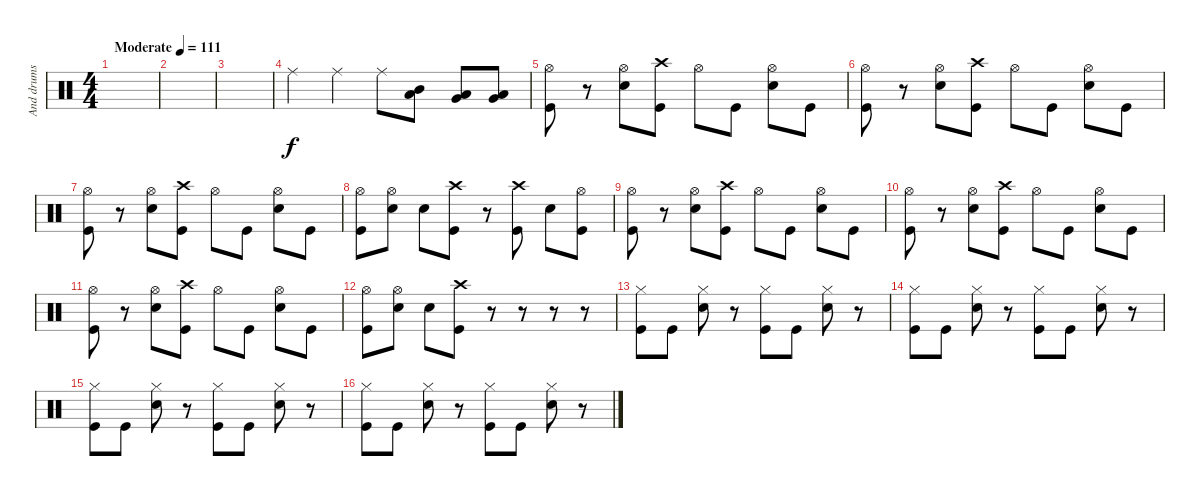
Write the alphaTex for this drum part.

\track ("And drums" "And drums") {instrument percussion}
\staff {score}
\articulation defaults
\ts (4 4)
\tempo (111 "Moderate")
\clef neutral
\ks c
|
|
|
"Ride (middle)".4 "Ride (middle)".4 "Ride (middle)".8 ("Mid Tom (hit)" "Low Tom (hit)").8 ("Low Tom (hit)" "Very Low Tom (hit)").8 ("Very Low Tom (hit)" "Low Floor Tom (hit)").8 |
("Hi-Hat (open)" "Kick (hit)").8 r.8 ("Hi-Hat (open)" "Snare (hit) 2").8 ("Crash high (hit)" "Kick (hit)").8 "Hi-Hat (open)".8 "Kick (hit)".8 ("Hi-Hat (open)" "Snare (hit) 2").8 "Kick (hit)".8 |
("Hi-Hat (open)" "Kick (hit)").8 r.8 ("Hi-Hat (open)" "Snare (hit) 2").8 ("Crash high (hit)" "Kick (hit)").8 "Hi-Hat (open)".8 "Kick (hit)".8 ("Hi-Hat (open)" "Snare (hit) 2").8 "Kick (hit)".8 |
("Hi-Hat (open)" "Kick (hit)").8 r.8 ("Hi-Hat (open)" "Snare (hit) 2").8 ("Crash high (hit)" "Kick (hit)").8 "Hi-Hat (open)".8 "Kick (hit)".8 ("Hi-Hat (open)" "Snare (hit) 2").8 "Kick (hit)".8 |
("Hi-Hat (open)" "Kick (hit)").8 ("Hi-Hat (open)" "Snare (hit) 2").8 "Snare (hit) 2".8 ("Crash high (hit)" "Kick (hit)").8 r.8 ("Crash high (hit)" "Kick (hit)").8 "Snare (hit) 2".8 ("Hi-Hat (open)" "Kick (hit)").8 |
("Hi-Hat (open)" "Kick (hit)").8 r.8 ("Hi-Hat (open)" "Snare (hit) 2").8 ("Crash high (hit)" "Kick (hit)").8 "Hi-Hat (open)".8 "Kick (hit)".8 ("Hi-Hat (open)" "Snare (hit) 2").8 "Kick (hit)".8 |
("Hi-Hat (open)" "Kick (hit)").8 r.8 ("Hi-Hat (open)" "Snare (hit) 2").8 ("Crash high (hit)" "Kick (hit)").8 "Hi-Hat (open)".8 "Kick (hit)".8 ("Hi-Hat (open)" "Snare (hit) 2").8 "Kick (hit)".8 |
("Hi-Hat (open)" "Kick (hit)").8 r.8 ("Hi-Hat (open)" "Snare (hit) 2").8 ("Crash high (hit)" "Kick (hit)").8 "Hi-Hat (open)".8 "Kick (hit)".8 ("Hi-Hat (open)" "Snare (hit) 2").8 "Kick (hit)".8 |
("Hi-Hat (open)" "Kick (hit)").8 ("Hi-Hat (open)" "Snare (hit) 2").8 "Snare (hit) 2".8 ("Crash high (hit)" "Kick (hit)").8 r.8 r.8 r.8 r.8 |
("Hi-Hat (closed)" "Kick (hit)").8 "Kick (hit)".8 ("Hi-Hat (closed)" "Snare (hit) 2").8 r.8 ("Hi-Hat (closed)" "Kick (hit)").8 "Kick (hit)".8 ("Hi-Hat (closed)" "Snare (hit) 2").8 r.8 |
("Hi-Hat (closed)" "Kick (hit)").8 "Kick (hit)".8 ("Hi-Hat (closed)" "Snare (hit) 2").8 r.8 ("Hi-Hat (closed)" "Kick (hit)").8 "Kick (hit)".8 ("Hi-Hat (closed)" "Snare (hit) 2").8 r.8 |
("Hi-Hat (closed)" "Kick (hit)").8 "Kick (hit)".8 ("Hi-Hat (closed)" "Snare (hit) 2").8 r.8 ("Hi-Hat (closed)" "Kick (hit)").8 "Kick (hit)".8 ("Hi-Hat (closed)" "Snare (hit) 2").8 r.8 |
("Hi-Hat (closed)" "Kick (hit)").8 "Kick (hit)".8 ("Hi-Hat (closed)" "Snare (hit) 2").8 r.8 ("Hi-Hat (closed)" "Kick (hit)").8 "Kick (hit)".8 ("Hi-Hat (closed)" "Snare (hit) 2").8 r.8
